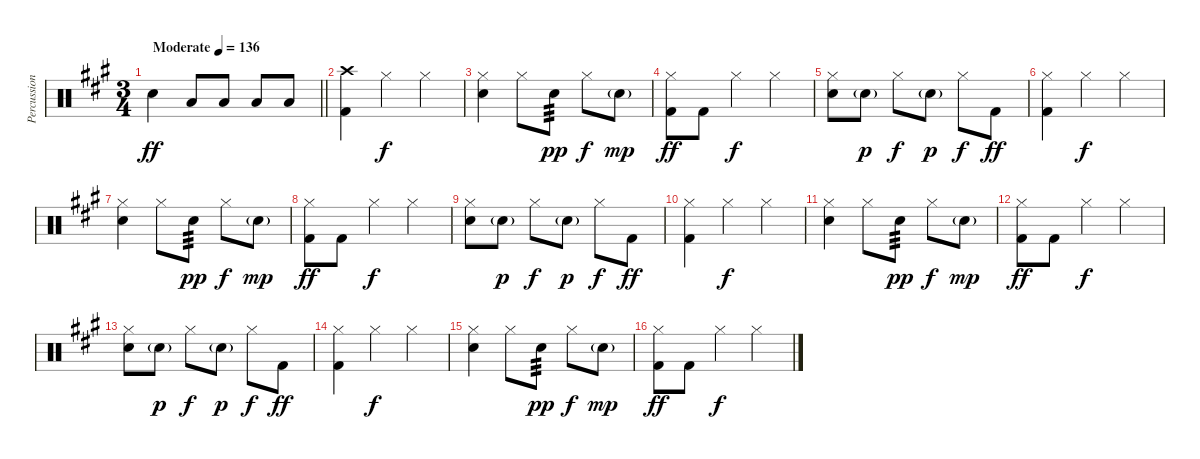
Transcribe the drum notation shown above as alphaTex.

\track ("Percussion" "Percussion") {solo instrument percussion}
\staff {score}
\articulation defaults
\ts (3 4)
\tempo (136 "Moderate")
\clef neutral
\barLineRight lightlight
\ks a "Snare (hit) 2".4{dy ff} "Low Tom (hit)".8 "Low Tom (hit)".8 "Low Floor Tom (hit)".8 "Low Floor Tom (hit)".8
|
("Crash high (hit)" "Kick (hit) 2").4 "Hi-Hat (closed)".4{dy f} "Hi-Hat (closed)".4 |
("Hi-Hat (closed)" "Snare (hit) 2").4 "Hi-Hat (closed)".8 "Snare (hit) 2".8{tp 3 dy pp} "Hi-Hat (closed)".8{dy f} "Snare (hit) 2"{g}.8{dy mp} |
("Hi-Hat (closed)" "Kick (hit) 2").8{dy ff} "Kick (hit) 2".8 "Hi-Hat (closed)".4{dy f} "Hi-Hat (closed)".4 |
("Hi-Hat (closed)" "Snare (hit) 2").8 "Snare (hit) 2"{g}.8{dy p} "Hi-Hat (closed)".8{dy f} "Snare (hit) 2"{g}.8{dy p} "Hi-Hat (closed)".8{dy f} "Kick (hit) 2".8{dy ff} |
("Hi-Hat (closed)" "Kick (hit) 2").4 "Hi-Hat (closed)".4{dy f} "Hi-Hat (closed)".4 |
("Hi-Hat (closed)" "Snare (hit) 2").4 "Hi-Hat (closed)".8 "Snare (hit) 2".8{tp 3 dy pp} "Hi-Hat (closed)".8{dy f} "Snare (hit) 2"{g}.8{dy mp} |
("Hi-Hat (closed)" "Kick (hit) 2").8{dy ff} "Kick (hit) 2".8 "Hi-Hat (closed)".4{dy f} "Hi-Hat (closed)".4 |
("Hi-Hat (closed)" "Snare (hit) 2").8 "Snare (hit) 2"{g}.8{dy p} "Hi-Hat (closed)".8{dy f} "Snare (hit) 2"{g}.8{dy p} "Hi-Hat (closed)".8{dy f} "Kick (hit) 2".8{dy ff} |
("Hi-Hat (closed)" "Kick (hit) 2").4 "Hi-Hat (closed)".4{dy f} "Hi-Hat (closed)".4 |
("Hi-Hat (closed)" "Snare (hit) 2").4 "Hi-Hat (closed)".8 "Snare (hit) 2".8{tp 3 dy pp} "Hi-Hat (closed)".8{dy f} "Snare (hit) 2"{g}.8{dy mp} |
("Hi-Hat (closed)" "Kick (hit) 2").8{dy ff} "Kick (hit) 2".8 "Hi-Hat (closed)".4{dy f} "Hi-Hat (closed)".4 |
("Hi-Hat (closed)" "Snare (hit) 2").8 "Snare (hit) 2"{g}.8{dy p} "Hi-Hat (closed)".8{dy f} "Snare (hit) 2"{g}.8{dy p} "Hi-Hat (closed)".8{dy f} "Kick (hit) 2".8{dy ff} |
("Hi-Hat (closed)" "Kick (hit) 2").4 "Hi-Hat (closed)".4{dy f} "Hi-Hat (closed)".4 |
("Hi-Hat (closed)" "Snare (hit) 2").4 "Hi-Hat (closed)".8 "Snare (hit) 2".8{tp 3 dy pp} "Hi-Hat (closed)".8{dy f} "Snare (hit) 2"{g}.8{dy mp} |
("Hi-Hat (closed)" "Kick (hit) 2").8{dy ff} "Kick (hit) 2".8 "Hi-Hat (closed)".4{dy f} "Hi-Hat (closed)".4
